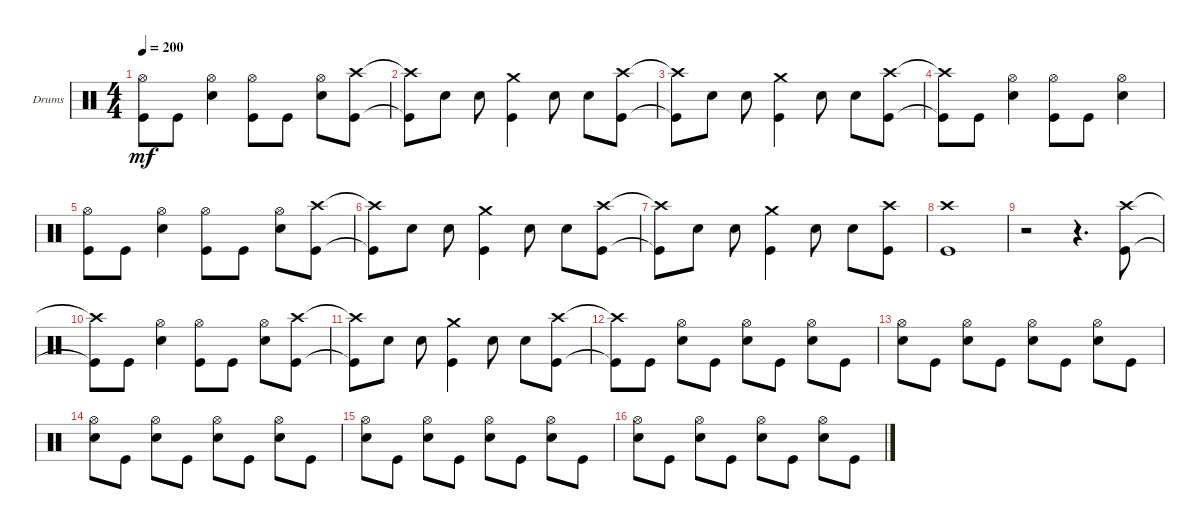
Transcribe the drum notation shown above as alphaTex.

\bracketExtendMode groupsimilarinstruments
\firstSystemTrackNameOrientation horizontal
\otherSystemsTrackNameOrientation horizontal
\track ("Drums" "Drums") {instrument percussion}
\staff {score}
\articulation defaults
\ts (4 4)
\tempo 200
\clef neutral
\ks c
("Kick (hit)" "Hi-Hat (open)").8{dy mf} "Kick (hit)".8 ("Snare (hit) 2" "Hi-Hat (open)").4 ("Kick (hit)" "Hi-Hat (open)").8 "Kick (hit)".8 ("Snare (hit) 2" "Hi-Hat (open)").8 ("Kick (hit)" "Crash high (hit)").8 |
("Kick (hit)"{t} "Crash high (hit)"{t}).8 "Snare (hit) 2".8 "Snare (hit) 2".8 ("Kick (hit)" "Crash medium (hit)").4 "Snare (hit) 2".8 "Snare (hit) 2".8 ("Kick (hit)" "Crash high (hit)").8 |
("Kick (hit)"{t} "Crash high (hit)"{t}).8 "Snare (hit) 2".8 "Snare (hit) 2".8 ("Kick (hit)" "Crash medium (hit)").4 "Snare (hit) 2".8 "Snare (hit) 2".8 ("Kick (hit)" "Crash high (hit)").8 |
("Kick (hit)"{t} "Crash high (hit)"{t}).8 "Kick (hit)".8 ("Snare (hit) 2" "Hi-Hat (open)").4 ("Kick (hit)" "Hi-Hat (open)").8 "Kick (hit)".8 ("Snare (hit) 2" "Hi-Hat (open)").4 |
("Kick (hit)" "Hi-Hat (open)").8 "Kick (hit)".8 ("Snare (hit) 2" "Hi-Hat (open)").4 ("Kick (hit)" "Hi-Hat (open)").8 "Kick (hit)".8 ("Snare (hit) 2" "Hi-Hat (open)").8 ("Kick (hit)" "Crash high (hit)").8 |
("Kick (hit)"{t} "Crash high (hit)"{t}).8 "Snare (hit) 2".8 "Snare (hit) 2".8 ("Kick (hit)" "Crash medium (hit)").4 "Snare (hit) 2".8 "Snare (hit) 2".8 ("Kick (hit)" "Crash high (hit)").8 |
("Kick (hit)"{t} "Crash high (hit)"{t}).8 "Snare (hit) 2".8 "Snare (hit) 2".8 ("Kick (hit)" "Crash medium (hit)").4 "Snare (hit) 2".8 "Snare (hit) 2".8 ("Kick (hit)" "Crash high (hit)").8 |
("Kick (hit)" "Crash high (hit)").1 |
r.2 r.4{d} ("Kick (hit)" "Crash high (hit)").8 |
("Kick (hit)"{t} "Crash high (hit)"{t}).8 "Kick (hit)".8 ("Snare (hit) 2" "Hi-Hat (open)").4 ("Kick (hit)" "Hi-Hat (open)").8 "Kick (hit)".8 ("Snare (hit) 2" "Hi-Hat (open)").8 ("Kick (hit)" "Crash high (hit)").8 |
("Kick (hit)"{t} "Crash high (hit)"{t}).8 "Snare (hit) 2".8 "Snare (hit) 2".8 ("Kick (hit)" "Crash medium (hit)").4 "Snare (hit) 2".8 "Snare (hit) 2".8 ("Kick (hit)" "Crash high (hit)").8 |
("Kick (hit)"{t} "Crash high (hit)"{t}).8 "Kick (hit)".8 ("Snare (hit) 2" "Hi-Hat (open)").8 "Kick (hit)".8 ("Snare (hit) 2" "Hi-Hat (open)").8 "Kick (hit)".8 ("Snare (hit) 2" "Hi-Hat (open)").8 "Kick (hit)".8 |
("Snare (hit) 2" "Hi-Hat (open)").8 "Kick (hit)".8 ("Snare (hit) 2" "Hi-Hat (open)").8 "Kick (hit)".8 ("Snare (hit) 2" "Hi-Hat (open)").8 "Kick (hit)".8 ("Snare (hit) 2" "Hi-Hat (open)").8 "Kick (hit)".8 |
("Snare (hit) 2" "Hi-Hat (open)").8 "Kick (hit)".8 ("Snare (hit) 2" "Hi-Hat (open)").8 "Kick (hit)".8 ("Snare (hit) 2" "Hi-Hat (open)").8 "Kick (hit)".8 ("Snare (hit) 2" "Hi-Hat (open)").8 "Kick (hit)".8 |
("Snare (hit) 2" "Hi-Hat (open)").8 "Kick (hit)".8 ("Snare (hit) 2" "Hi-Hat (open)").8 "Kick (hit)".8 ("Snare (hit) 2" "Hi-Hat (open)").8 "Kick (hit)".8 ("Snare (hit) 2" "Hi-Hat (open)").8 "Kick (hit)".8 |
("Snare (hit) 2" "Hi-Hat (open)").8 "Kick (hit)".8 ("Snare (hit) 2" "Hi-Hat (open)").8 "Kick (hit)".8 ("Snare (hit) 2" "Hi-Hat (open)").8 "Kick (hit)".8 ("Snare (hit) 2" "Hi-Hat (open)").8 "Kick (hit)".8
